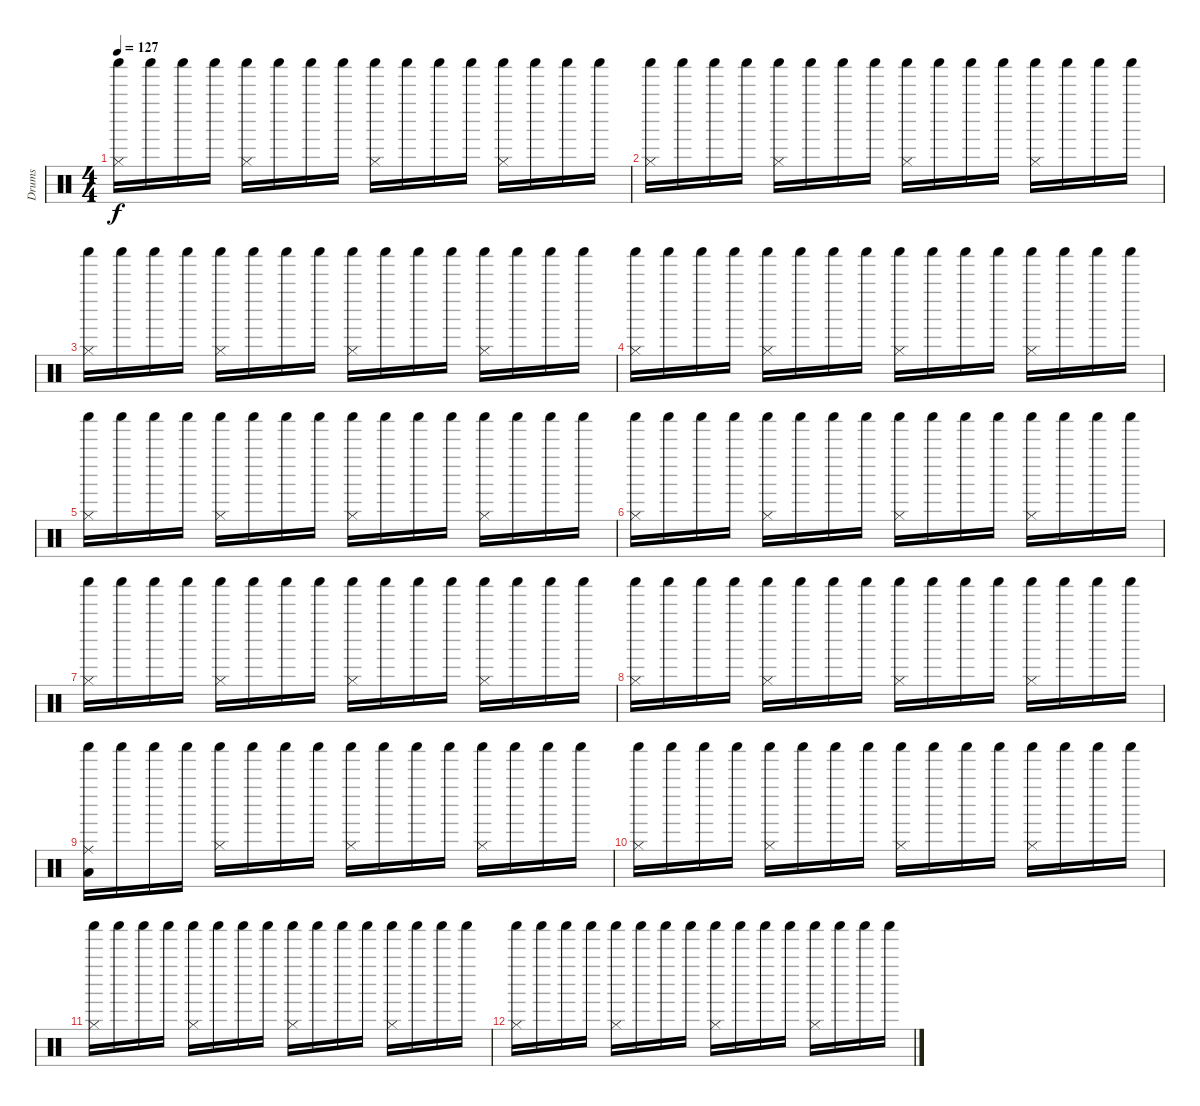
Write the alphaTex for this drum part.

\track ("Drums" "Drums") {instrument percussion}
\staff {score}
\articulation defaults
\ts (4 4)
\tempo 127
\clef neutral
\ks c
("Hi-Hat (closed)" "Shaker (hit)").16{dy f} "Shaker (hit)".16 "Shaker (hit)".16 "Shaker (hit)".16 ("Hi-Hat (closed)" "Shaker (hit)").16 "Shaker (hit)".16 "Shaker (hit)".16 "Shaker (hit)".16 ("Hi-Hat (closed)" "Shaker (hit)").16 "Shaker (hit)".16 "Shaker (hit)".16 "Shaker (hit)".16 ("Hi-Hat (closed)" "Shaker (hit)").16 "Shaker (hit)".16 "Shaker (hit)".16 "Shaker (hit)".16 |
("Hi-Hat (closed)" "Shaker (hit)").16 "Shaker (hit)".16 "Shaker (hit)".16 "Shaker (hit)".16 ("Hi-Hat (closed)" "Shaker (hit)").16 "Shaker (hit)".16 "Shaker (hit)".16 "Shaker (hit)".16 ("Hi-Hat (closed)" "Shaker (hit)").16 "Shaker (hit)".16 "Shaker (hit)".16 "Shaker (hit)".16 ("Hi-Hat (closed)" "Shaker (hit)").16 "Shaker (hit)".16 "Shaker (hit)".16 "Shaker (hit)".16 |
("Hi-Hat (closed)" "Shaker (hit)").16 "Shaker (hit)".16 "Shaker (hit)".16 "Shaker (hit)".16 ("Hi-Hat (closed)" "Shaker (hit)").16 "Shaker (hit)".16 "Shaker (hit)".16 "Shaker (hit)".16 ("Hi-Hat (closed)" "Shaker (hit)").16 "Shaker (hit)".16 "Shaker (hit)".16 "Shaker (hit)".16 ("Hi-Hat (closed)" "Shaker (hit)").16 "Shaker (hit)".16 "Shaker (hit)".16 "Shaker (hit)".16 |
("Hi-Hat (closed)" "Shaker (hit)").16 "Shaker (hit)".16 "Shaker (hit)".16 "Shaker (hit)".16 ("Hi-Hat (closed)" "Shaker (hit)").16 "Shaker (hit)".16 "Shaker (hit)".16 "Shaker (hit)".16 ("Hi-Hat (closed)" "Shaker (hit)").16 "Shaker (hit)".16 "Shaker (hit)".16 "Shaker (hit)".16 ("Hi-Hat (closed)" "Shaker (hit)").16 "Shaker (hit)".16 "Shaker (hit)".16 "Shaker (hit)".16 |
("Hi-Hat (closed)" "Shaker (hit)").16 "Shaker (hit)".16 "Shaker (hit)".16 "Shaker (hit)".16 ("Hi-Hat (closed)" "Shaker (hit)").16 "Shaker (hit)".16 "Shaker (hit)".16 "Shaker (hit)".16 ("Hi-Hat (closed)" "Shaker (hit)").16 "Shaker (hit)".16 "Shaker (hit)".16 "Shaker (hit)".16 ("Hi-Hat (closed)" "Shaker (hit)").16 "Shaker (hit)".16 "Shaker (hit)".16 "Shaker (hit)".16 |
("Hi-Hat (closed)" "Shaker (hit)").16 "Shaker (hit)".16 "Shaker (hit)".16 "Shaker (hit)".16 ("Hi-Hat (closed)" "Shaker (hit)").16 "Shaker (hit)".16 "Shaker (hit)".16 "Shaker (hit)".16 ("Hi-Hat (closed)" "Shaker (hit)").16 "Shaker (hit)".16 "Shaker (hit)".16 "Shaker (hit)".16 ("Hi-Hat (closed)" "Shaker (hit)").16 "Shaker (hit)".16 "Shaker (hit)".16 "Shaker (hit)".16 |
("Hi-Hat (closed)" "Shaker (hit)").16 "Shaker (hit)".16 "Shaker (hit)".16 "Shaker (hit)".16 ("Hi-Hat (closed)" "Shaker (hit)").16 "Shaker (hit)".16 "Shaker (hit)".16 "Shaker (hit)".16 ("Hi-Hat (closed)" "Shaker (hit)").16 "Shaker (hit)".16 "Shaker (hit)".16 "Shaker (hit)".16 ("Hi-Hat (closed)" "Shaker (hit)").16 "Shaker (hit)".16 "Shaker (hit)".16 "Shaker (hit)".16 |
("Hi-Hat (closed)" "Shaker (hit)").16 "Shaker (hit)".16 "Shaker (hit)".16 "Shaker (hit)".16 ("Hi-Hat (closed)" "Shaker (hit)").16 "Shaker (hit)".16 "Shaker (hit)".16 "Shaker (hit)".16 ("Hi-Hat (closed)" "Shaker (hit)").16 "Shaker (hit)".16 "Shaker (hit)".16 "Shaker (hit)".16 ("Hi-Hat (closed)" "Shaker (hit)").16 "Shaker (hit)".16 "Shaker (hit)".16 "Shaker (hit)".16 |
("Ride (middle)" "Shaker (hit)" "Low Tom (hit)").16 "Shaker (hit)".16 "Shaker (hit)".16 "Shaker (hit)".16 ("Hi-Hat (closed)" "Shaker (hit)").16 "Shaker (hit)".16 "Shaker (hit)".16 "Shaker (hit)".16 ("Hi-Hat (closed)" "Shaker (hit)").16 "Shaker (hit)".16 "Shaker (hit)".16 "Shaker (hit)".16 ("Hi-Hat (closed)" "Shaker (hit)").16 "Shaker (hit)".16 "Shaker (hit)".16 "Shaker (hit)".16 |
("Hi-Hat (closed)" "Shaker (hit)").16 "Shaker (hit)".16 "Shaker (hit)".16 "Shaker (hit)".16 ("Hi-Hat (closed)" "Shaker (hit)").16 "Shaker (hit)".16 "Shaker (hit)".16 "Shaker (hit)".16 ("Hi-Hat (closed)" "Shaker (hit)").16 "Shaker (hit)".16 "Shaker (hit)".16 "Shaker (hit)".16 ("Hi-Hat (closed)" "Shaker (hit)").16 "Shaker (hit)".16 "Shaker (hit)".16 "Shaker (hit)".16 |
("Hi-Hat (closed)" "Shaker (hit)").16 "Shaker (hit)".16 "Shaker (hit)".16 "Shaker (hit)".16 ("Hi-Hat (closed)" "Shaker (hit)").16 "Shaker (hit)".16 "Shaker (hit)".16 "Shaker (hit)".16 ("Hi-Hat (closed)" "Shaker (hit)").16 "Shaker (hit)".16 "Shaker (hit)".16 "Shaker (hit)".16 ("Hi-Hat (closed)" "Shaker (hit)").16 "Shaker (hit)".16 "Shaker (hit)".16 "Shaker (hit)".16 |
("Hi-Hat (closed)" "Shaker (hit)").16 "Shaker (hit)".16 "Shaker (hit)".16 "Shaker (hit)".16 ("Hi-Hat (closed)" "Shaker (hit)").16 "Shaker (hit)".16 "Shaker (hit)".16 "Shaker (hit)".16 ("Hi-Hat (closed)" "Shaker (hit)").16 "Shaker (hit)".16 "Shaker (hit)".16 "Shaker (hit)".16 ("Hi-Hat (closed)" "Shaker (hit)").16 "Shaker (hit)".16 "Shaker (hit)".16 "Shaker (hit)".16
